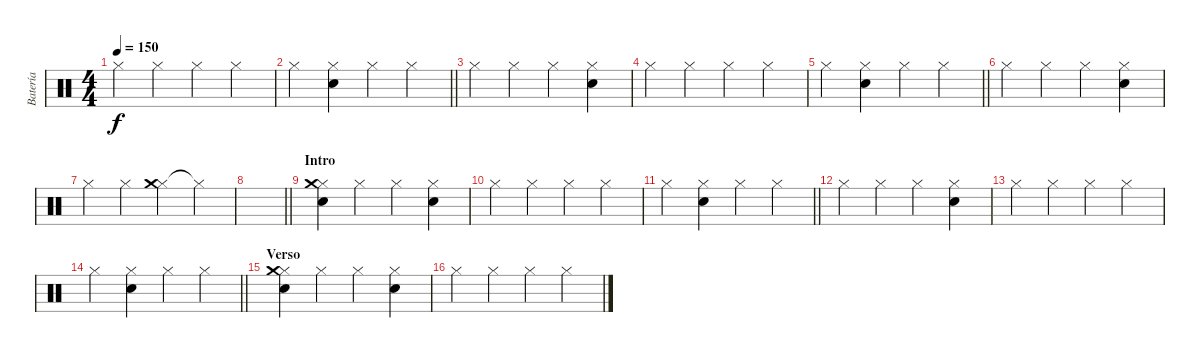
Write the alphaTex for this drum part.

\track ("Batería" "Batería") {instrument percussion}
\staff {score}
\articulation defaults
\ts (4 4)
\tempo 150
\clef neutral
\ks c "Hi-Hat (closed)".4{dy f} "Hi-Hat (closed)".4 "Hi-Hat (closed)".4 "Hi-Hat (closed)".4
|
\barLineRight lightlight "Hi-Hat (closed)".4
("Hi-Hat (closed)" "Electric Snare (hit)").4 "Hi-Hat (closed)".4 "Hi-Hat (closed)".4 |
"Hi-Hat (closed)".4 "Hi-Hat (closed)".4 "Hi-Hat (closed)".4 ("Hi-Hat (closed)" "Electric Snare (hit)").4 |
"Hi-Hat (closed)".4 "Hi-Hat (closed)".4 "Hi-Hat (closed)".4 "Hi-Hat (closed)".4 |
\barLineRight lightlight "Hi-Hat (closed)".4
("Hi-Hat (closed)" "Electric Snare (hit)").4 "Hi-Hat (closed)".4 "Hi-Hat (closed)".4 |
"Hi-Hat (closed)".4 "Hi-Hat (closed)".4 "Hi-Hat (closed)".4 ("Hi-Hat (closed)" "Electric Snare (hit)").4 |
"Hi-Hat (closed)".4 "Hi-Hat (closed)".4 ("Hi-Hat (closed)" "Crash medium (hit)").4 "Hi-Hat (closed)"{t}.4 |
\barLineRight lightlight
|
\section ("" "Intro")
("Hi-Hat (closed)" "Electric Snare (hit)" "Crash medium (hit)").4 "Hi-Hat (closed)".4 "Hi-Hat (closed)".4 ("Hi-Hat (closed)" "Electric Snare (hit)").4 |
"Hi-Hat (closed)".4 "Hi-Hat (closed)".4 "Hi-Hat (closed)".4 "Hi-Hat (closed)".4 |
\barLineRight lightlight "Hi-Hat (closed)".4
("Hi-Hat (closed)" "Electric Snare (hit)").4 "Hi-Hat (closed)".4 "Hi-Hat (closed)".4 |
"Hi-Hat (closed)".4 "Hi-Hat (closed)".4 "Hi-Hat (closed)".4 ("Hi-Hat (closed)" "Electric Snare (hit)").4 |
"Hi-Hat (closed)".4 "Hi-Hat (closed)".4 "Hi-Hat (closed)".4 "Hi-Hat (closed)".4 |
\barLineRight lightlight "Hi-Hat (closed)".4
("Hi-Hat (closed)" "Electric Snare (hit)").4 "Hi-Hat (closed)".4 "Hi-Hat (closed)".4 |
\section ("" "Verso")
("Hi-Hat (closed)" "Electric Snare (hit)" "Crash medium (hit)").4 "Hi-Hat (closed)".4 "Hi-Hat (closed)".4 ("Hi-Hat (closed)" "Electric Snare (hit)").4 |
"Hi-Hat (closed)".4 "Hi-Hat (closed)".4 "Hi-Hat (closed)".4 "Hi-Hat (closed)".4
